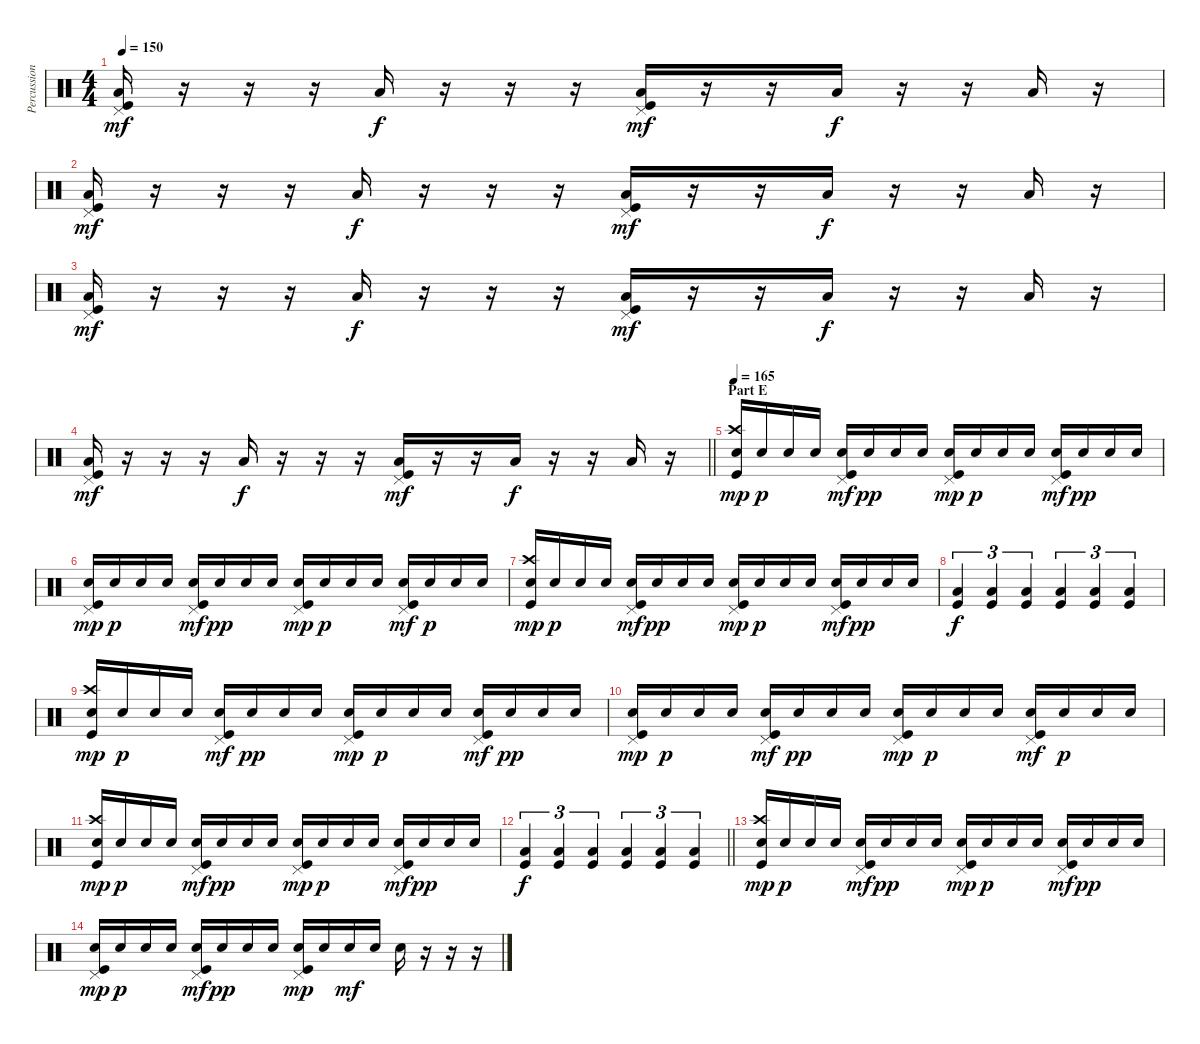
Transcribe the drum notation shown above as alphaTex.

\track ("Percussion" "Percussion") {instrument percussion}
\staff {score}
\articulation defaults
\ts (4 4)
\tempo 150
\clef neutral
\ks c
("Pedal Hi-Hat (hit)" "Low Floor Tom (hit)" "Kick (hit)").16{dy mf} r.16 r.16 r.16 "Low Floor Tom (hit)".16{dy f} r.16 r.16 r.16 ("Pedal Hi-Hat (hit)" "Low Floor Tom (hit)" "Kick (hit)").16{dy mf} r.16 r.16 "Low Floor Tom (hit)".16{dy f} r.16 r.16 "Low Floor Tom (hit)".16 r.16 |
("Pedal Hi-Hat (hit)" "Low Floor Tom (hit)" "Kick (hit)").16{dy mf} r.16 r.16 r.16 "Low Floor Tom (hit)".16{dy f} r.16 r.16 r.16 ("Pedal Hi-Hat (hit)" "Low Floor Tom (hit)" "Kick (hit)").16{dy mf} r.16 r.16 "Low Floor Tom (hit)".16{dy f} r.16 r.16 "Low Floor Tom (hit)".16 r.16 |
("Pedal Hi-Hat (hit)" "Low Floor Tom (hit)" "Kick (hit)").16{dy mf} r.16 r.16 r.16 "Low Floor Tom (hit)".16{dy f} r.16 r.16 r.16 ("Pedal Hi-Hat (hit)" "Low Floor Tom (hit)" "Kick (hit)").16{dy mf} r.16 r.16 "Low Floor Tom (hit)".16{dy f} r.16 r.16 "Low Floor Tom (hit)".16 r.16 |
\barLineRight lightlight
("Pedal Hi-Hat (hit)" "Low Floor Tom (hit)" "Kick (hit)").16{dy mf} r.16 r.16 r.16 "Low Floor Tom (hit)".16{dy f} r.16 r.16 r.16 ("Pedal Hi-Hat (hit)" "Low Floor Tom (hit)" "Kick (hit)").16{dy mf} r.16 r.16 "Low Floor Tom (hit)".16{dy f} r.16 r.16 "Low Floor Tom (hit)".16 r.16 |
\section ("" "Part E")
\tempo 165
("Crash high (hit)" "Electric Snare (hit)" "Kick (hit)").16{dy mp} "Electric Snare (hit)".16{dy p} "Electric Snare (hit)".16 "Electric Snare (hit)".16 ("Pedal Hi-Hat (hit)" "Electric Snare (hit)" "Kick (hit)").16{dy mf} "Electric Snare (hit)".16{dy pp} "Electric Snare (hit)".16 "Electric Snare (hit)".16 ("Pedal Hi-Hat (hit)" "Electric Snare (hit)" "Kick (hit)").16{dy mp} "Electric Snare (hit)".16{dy p} "Electric Snare (hit)".16 "Electric Snare (hit)".16 ("Pedal Hi-Hat (hit)" "Electric Snare (hit)" "Kick (hit)").16{dy mf} "Electric Snare (hit)".16{dy pp} "Electric Snare (hit)".16 "Electric Snare (hit)".16 |
("Pedal Hi-Hat (hit)" "Electric Snare (hit)" "Kick (hit)").16{dy mp} "Electric Snare (hit)".16{dy p} "Electric Snare (hit)".16 "Electric Snare (hit)".16 ("Pedal Hi-Hat (hit)" "Electric Snare (hit)" "Kick (hit)").16{dy mf} "Electric Snare (hit)".16{dy pp} "Electric Snare (hit)".16 "Electric Snare (hit)".16 ("Pedal Hi-Hat (hit)" "Electric Snare (hit)" "Kick (hit)").16{dy mp} "Electric Snare (hit)".16{dy p} "Electric Snare (hit)".16 "Electric Snare (hit)".16 ("Pedal Hi-Hat (hit)" "Electric Snare (hit)" "Kick (hit)").16{dy mf} "Electric Snare (hit)".16{dy p} "Electric Snare (hit)".16 "Electric Snare (hit)".16 |
("Crash high (hit)" "Electric Snare (hit)" "Kick (hit)").16{dy mp} "Electric Snare (hit)".16{dy p} "Electric Snare (hit)".16 "Electric Snare (hit)".16 ("Pedal Hi-Hat (hit)" "Electric Snare (hit)" "Kick (hit)").16{dy mf} "Electric Snare (hit)".16{dy pp} "Electric Snare (hit)".16 "Electric Snare (hit)".16 ("Pedal Hi-Hat (hit)" "Electric Snare (hit)" "Kick (hit)").16{dy mp} "Electric Snare (hit)".16{dy p} "Electric Snare (hit)".16 "Electric Snare (hit)".16 ("Pedal Hi-Hat (hit)" "Electric Snare (hit)" "Kick (hit)").16{dy mf} "Electric Snare (hit)".16{dy pp} "Electric Snare (hit)".16 "Electric Snare (hit)".16 |
("Low Floor Tom (hit)" "Kick (hit)").4{tu (3 2) dy f} ("Low Floor Tom (hit)" "Kick (hit)").4{tu (3 2)} ("Low Floor Tom (hit)" "Kick (hit)").4{tu (3 2)} ("Low Floor Tom (hit)" "Kick (hit)").4{tu (3 2)} ("Low Floor Tom (hit)" "Kick (hit)").4{tu (3 2)} ("Low Floor Tom (hit)" "Kick (hit)").4{tu (3 2)} |
("Crash high (hit)" "Electric Snare (hit)" "Kick (hit)").16{dy mp} "Electric Snare (hit)".16{dy p} "Electric Snare (hit)".16 "Electric Snare (hit)".16 ("Pedal Hi-Hat (hit)" "Electric Snare (hit)" "Kick (hit)").16{dy mf} "Electric Snare (hit)".16{dy pp} "Electric Snare (hit)".16 "Electric Snare (hit)".16 ("Pedal Hi-Hat (hit)" "Electric Snare (hit)" "Kick (hit)").16{dy mp} "Electric Snare (hit)".16{dy p} "Electric Snare (hit)".16 "Electric Snare (hit)".16 ("Pedal Hi-Hat (hit)" "Electric Snare (hit)" "Kick (hit)").16{dy mf} "Electric Snare (hit)".16{dy pp} "Electric Snare (hit)".16 "Electric Snare (hit)".16 |
("Pedal Hi-Hat (hit)" "Electric Snare (hit)" "Kick (hit)").16{dy mp} "Electric Snare (hit)".16{dy p} "Electric Snare (hit)".16 "Electric Snare (hit)".16 ("Pedal Hi-Hat (hit)" "Electric Snare (hit)" "Kick (hit)").16{dy mf} "Electric Snare (hit)".16{dy pp} "Electric Snare (hit)".16 "Electric Snare (hit)".16 ("Pedal Hi-Hat (hit)" "Electric Snare (hit)" "Kick (hit)").16{dy mp} "Electric Snare (hit)".16{dy p} "Electric Snare (hit)".16 "Electric Snare (hit)".16 ("Pedal Hi-Hat (hit)" "Electric Snare (hit)" "Kick (hit)").16{dy mf} "Electric Snare (hit)".16{dy p} "Electric Snare (hit)".16 "Electric Snare (hit)".16 |
("Crash high (hit)" "Electric Snare (hit)" "Kick (hit)").16{dy mp} "Electric Snare (hit)".16{dy p} "Electric Snare (hit)".16 "Electric Snare (hit)".16 ("Pedal Hi-Hat (hit)" "Electric Snare (hit)" "Kick (hit)").16{dy mf} "Electric Snare (hit)".16{dy pp} "Electric Snare (hit)".16 "Electric Snare (hit)".16 ("Pedal Hi-Hat (hit)" "Electric Snare (hit)" "Kick (hit)").16{dy mp} "Electric Snare (hit)".16{dy p} "Electric Snare (hit)".16 "Electric Snare (hit)".16 ("Pedal Hi-Hat (hit)" "Electric Snare (hit)" "Kick (hit)").16{dy mf} "Electric Snare (hit)".16{dy pp} "Electric Snare (hit)".16 "Electric Snare (hit)".16 |
\barLineRight lightlight
("Low Floor Tom (hit)" "Kick (hit)").4{tu (3 2) dy f} ("Low Floor Tom (hit)" "Kick (hit)").4{tu (3 2)} ("Low Floor Tom (hit)" "Kick (hit)").4{tu (3 2)} ("Low Floor Tom (hit)" "Kick (hit)").4{tu (3 2)} ("Low Floor Tom (hit)" "Kick (hit)").4{tu (3 2)} ("Low Floor Tom (hit)" "Kick (hit)").4{tu (3 2)} |
("Crash high (hit)" "Electric Snare (hit)" "Kick (hit)").16{dy mp} "Electric Snare (hit)".16{dy p} "Electric Snare (hit)".16 "Electric Snare (hit)".16 ("Pedal Hi-Hat (hit)" "Electric Snare (hit)" "Kick (hit)").16{dy mf} "Electric Snare (hit)".16{dy pp} "Electric Snare (hit)".16 "Electric Snare (hit)".16 ("Pedal Hi-Hat (hit)" "Electric Snare (hit)" "Kick (hit)").16{dy mp} "Electric Snare (hit)".16{dy p} "Electric Snare (hit)".16 "Electric Snare (hit)".16 ("Pedal Hi-Hat (hit)" "Electric Snare (hit)" "Kick (hit)").16{dy mf} "Electric Snare (hit)".16{dy pp} "Electric Snare (hit)".16 "Electric Snare (hit)".16 |
("Pedal Hi-Hat (hit)" "Electric Snare (hit)" "Kick (hit)").16{dy mp} "Electric Snare (hit)".16{dy p} "Electric Snare (hit)".16 "Electric Snare (hit)".16 ("Pedal Hi-Hat (hit)" "Electric Snare (hit)" "Kick (hit)").16{dy mf} "Electric Snare (hit)".16{dy pp} "Electric Snare (hit)".16 "Electric Snare (hit)".16 ("Pedal Hi-Hat (hit)" "Electric Snare (hit)" "Kick (hit)").16{dy mp} "Electric Snare (hit)".16 "Electric Snare (hit)".16{dy mf} "Electric Snare (hit)".16 "Electric Snare (hit)".16 r.16 r.16 r.16
